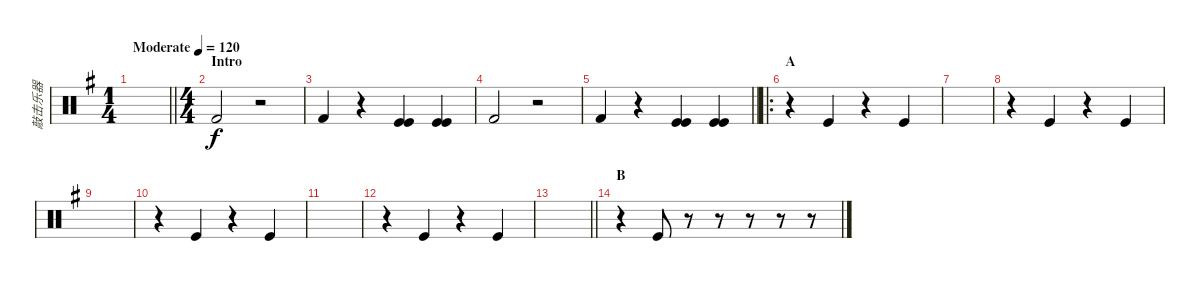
\track ("敲击乐器" "敲击乐器") {instrument percussion}
\staff {score}
\articulation defaults
\ts (1 4)
\tempo (120 "Moderate")
\clef neutral
\barLineRight lightlight
\ks g
|
\ts (4 4)
\section ("" "Intro")
"Kick (hit) 2".2 r.2 |
"Kick (hit) 2".4 r.4 ("Kick (hit)" "Kick (hit)").4 ("Kick (hit)" "Kick (hit)").4 |
"Kick (hit) 2".2 r.2 |
\barLineRight lightlight "Kick (hit) 2".4
r.4 ("Kick (hit)" "Kick (hit)").4 ("Kick (hit)" "Kick (hit)").4 |
\ro
\section ("" "A")
r.4 "Kick (hit)".4 r.4 "Kick (hit)".4 |
|
r.4 "Kick (hit)".4 r.4 "Kick (hit)".4 |
|
r.4 "Kick (hit)".4 r.4 "Kick (hit)".4 |
|
r.4 "Kick (hit)".4 r.4 "Kick (hit)".4 |
\barLineRight lightlight
|
\section ("" "B")
r.4 "Kick (hit)".8 r.8 r.8 r.8 r.8 r.8
